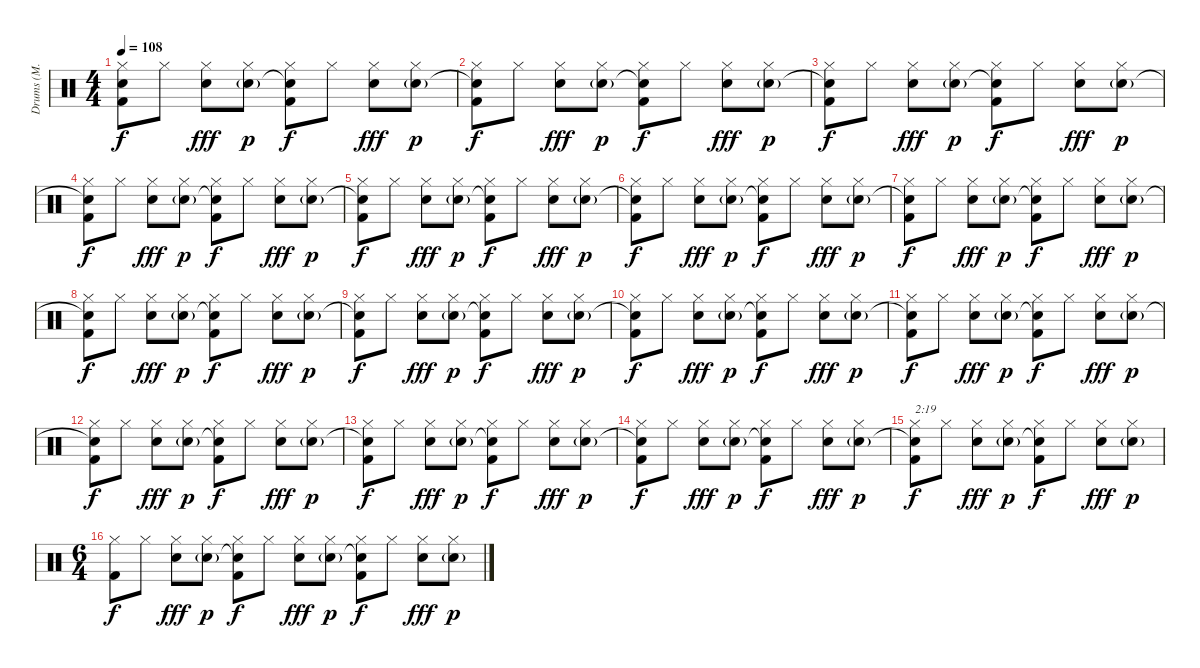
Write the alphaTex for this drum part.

\track ("Drums (M. Chambers)" "Drums (M. ") {instrument percussion}
\staff {score}
\articulation defaults
\ts (4 4)
\tempo 108
\clef neutral
\ks c
("Hi-Hat (closed)" "Snare (hit)"{t} "Kick (hit) 2").8{dy f} "Hi-Hat (closed)".8 ("Hi-Hat (closed)" "Electric Snare (hit)").8{dy fff} ("Hi-Hat (closed)" "Electric Snare (hit)"{g}).8{dy p} ("Hi-Hat (closed)" "Snare (hit)"{t} "Kick (hit) 2").8{dy f} "Hi-Hat (closed)".8 ("Hi-Hat (closed)" "Electric Snare (hit)").8{dy fff} ("Hi-Hat (closed)" "Electric Snare (hit)"{g}).8{dy p} |
("Hi-Hat (closed)" "Snare (hit)"{t} "Kick (hit) 2").8{dy f} "Hi-Hat (closed)".8 ("Hi-Hat (closed)" "Electric Snare (hit)").8{dy fff} ("Hi-Hat (closed)" "Electric Snare (hit)"{g}).8{dy p} ("Hi-Hat (closed)" "Snare (hit)"{t} "Kick (hit) 2").8{dy f} "Hi-Hat (closed)".8 ("Hi-Hat (closed)" "Electric Snare (hit)").8{dy fff} ("Hi-Hat (closed)" "Electric Snare (hit)"{g}).8{dy p} |
("Hi-Hat (closed)" "Snare (hit)"{t} "Kick (hit) 2").8{dy f} "Hi-Hat (closed)".8 ("Hi-Hat (closed)" "Electric Snare (hit)").8{dy fff} ("Hi-Hat (closed)" "Electric Snare (hit)"{g}).8{dy p} ("Hi-Hat (closed)" "Snare (hit)"{t} "Kick (hit) 2").8{dy f} "Hi-Hat (closed)".8 ("Hi-Hat (closed)" "Electric Snare (hit)").8{dy fff} ("Hi-Hat (closed)" "Electric Snare (hit)"{g}).8{dy p} |
("Hi-Hat (closed)" "Snare (hit)"{t} "Kick (hit) 2").8{dy f} "Hi-Hat (closed)".8 ("Hi-Hat (closed)" "Electric Snare (hit)").8{dy fff} ("Hi-Hat (closed)" "Electric Snare (hit)"{g}).8{dy p} ("Hi-Hat (closed)" "Snare (hit)"{t} "Kick (hit) 2").8{dy f} "Hi-Hat (closed)".8 ("Hi-Hat (closed)" "Electric Snare (hit)").8{dy fff} ("Hi-Hat (closed)" "Electric Snare (hit)"{g}).8{dy p} |
("Hi-Hat (closed)" "Snare (hit)"{t} "Kick (hit) 2").8{dy f} "Hi-Hat (closed)".8 ("Hi-Hat (closed)" "Electric Snare (hit)").8{dy fff} ("Hi-Hat (closed)" "Electric Snare (hit)"{g}).8{dy p} ("Hi-Hat (closed)" "Snare (hit)"{t} "Kick (hit) 2").8{dy f} "Hi-Hat (closed)".8 ("Hi-Hat (closed)" "Electric Snare (hit)").8{dy fff} ("Hi-Hat (closed)" "Electric Snare (hit)"{g}).8{dy p} |
("Hi-Hat (closed)" "Snare (hit)"{t} "Kick (hit) 2").8{dy f} "Hi-Hat (closed)".8 ("Hi-Hat (closed)" "Electric Snare (hit)").8{dy fff} ("Hi-Hat (closed)" "Electric Snare (hit)"{g}).8{dy p} ("Hi-Hat (closed)" "Snare (hit)"{t} "Kick (hit) 2").8{dy f} "Hi-Hat (closed)".8 ("Hi-Hat (closed)" "Electric Snare (hit)").8{dy fff} ("Hi-Hat (closed)" "Electric Snare (hit)"{g}).8{dy p} |
("Hi-Hat (closed)" "Snare (hit)"{t} "Kick (hit) 2").8{dy f} "Hi-Hat (closed)".8 ("Hi-Hat (closed)" "Electric Snare (hit)").8{dy fff} ("Hi-Hat (closed)" "Electric Snare (hit)"{g}).8{dy p} ("Hi-Hat (closed)" "Snare (hit)"{t} "Kick (hit) 2").8{dy f} "Hi-Hat (closed)".8 ("Hi-Hat (closed)" "Electric Snare (hit)").8{dy fff} ("Hi-Hat (closed)" "Electric Snare (hit)"{g}).8{dy p} |
("Hi-Hat (closed)" "Snare (hit)"{t} "Kick (hit) 2").8{dy f} "Hi-Hat (closed)".8 ("Hi-Hat (closed)" "Electric Snare (hit)").8{dy fff} ("Hi-Hat (closed)" "Electric Snare (hit)"{g}).8{dy p} ("Hi-Hat (closed)" "Snare (hit)"{t} "Kick (hit) 2").8{dy f} "Hi-Hat (closed)".8 ("Hi-Hat (closed)" "Electric Snare (hit)").8{dy fff} ("Hi-Hat (closed)" "Electric Snare (hit)"{g}).8{dy p} |
("Hi-Hat (closed)" "Snare (hit)"{t} "Kick (hit) 2").8{dy f} "Hi-Hat (closed)".8 ("Hi-Hat (closed)" "Electric Snare (hit)").8{dy fff} ("Hi-Hat (closed)" "Electric Snare (hit)"{g}).8{dy p} ("Hi-Hat (closed)" "Snare (hit)"{t} "Kick (hit) 2").8{dy f} "Hi-Hat (closed)".8 ("Hi-Hat (closed)" "Electric Snare (hit)").8{dy fff} ("Hi-Hat (closed)" "Electric Snare (hit)"{g}).8{dy p} |
("Hi-Hat (closed)" "Snare (hit)"{t} "Kick (hit) 2").8{dy f} "Hi-Hat (closed)".8 ("Hi-Hat (closed)" "Electric Snare (hit)").8{dy fff} ("Hi-Hat (closed)" "Electric Snare (hit)"{g}).8{dy p} ("Hi-Hat (closed)" "Snare (hit)"{t} "Kick (hit) 2").8{dy f} "Hi-Hat (closed)".8 ("Hi-Hat (closed)" "Electric Snare (hit)").8{dy fff} ("Hi-Hat (closed)" "Electric Snare (hit)"{g}).8{dy p} |
("Hi-Hat (closed)" "Snare (hit)"{t} "Kick (hit) 2").8{dy f} "Hi-Hat (closed)".8 ("Hi-Hat (closed)" "Electric Snare (hit)").8{dy fff} ("Hi-Hat (closed)" "Electric Snare (hit)"{g}).8{dy p} ("Hi-Hat (closed)" "Snare (hit)"{t} "Kick (hit) 2").8{dy f} "Hi-Hat (closed)".8 ("Hi-Hat (closed)" "Electric Snare (hit)").8{dy fff} ("Hi-Hat (closed)" "Electric Snare (hit)"{g}).8{dy p} |
("Hi-Hat (closed)" "Snare (hit)"{t} "Kick (hit) 2").8{dy f} "Hi-Hat (closed)".8 ("Hi-Hat (closed)" "Electric Snare (hit)").8{dy fff} ("Hi-Hat (closed)" "Electric Snare (hit)"{g}).8{dy p} ("Hi-Hat (closed)" "Snare (hit)"{t} "Kick (hit) 2").8{dy f} "Hi-Hat (closed)".8 ("Hi-Hat (closed)" "Electric Snare (hit)").8{dy fff} ("Hi-Hat (closed)" "Electric Snare (hit)"{g}).8{dy p} |
("Hi-Hat (closed)" "Snare (hit)"{t} "Kick (hit) 2").8{dy f} "Hi-Hat (closed)".8 ("Hi-Hat (closed)" "Electric Snare (hit)").8{dy fff} ("Hi-Hat (closed)" "Electric Snare (hit)"{g}).8{dy p} ("Hi-Hat (closed)" "Snare (hit)"{t} "Kick (hit) 2").8{dy f} "Hi-Hat (closed)".8 ("Hi-Hat (closed)" "Electric Snare (hit)").8{dy fff} ("Hi-Hat (closed)" "Electric Snare (hit)"{g}).8{dy p} |
("Hi-Hat (closed)" "Snare (hit)"{t} "Kick (hit) 2").8{dy f} "Hi-Hat (closed)".8 ("Hi-Hat (closed)" "Electric Snare (hit)").8{dy fff} ("Hi-Hat (closed)" "Electric Snare (hit)"{g}).8{dy p} ("Hi-Hat (closed)" "Snare (hit)"{t} "Kick (hit) 2").8{dy f} "Hi-Hat (closed)".8 ("Hi-Hat (closed)" "Electric Snare (hit)").8{dy fff} ("Hi-Hat (closed)" "Electric Snare (hit)"{g}).8{dy p} |
("Hi-Hat (closed)" "Snare (hit)"{t} "Kick (hit) 2").8{txt "2:19" dy f} "Hi-Hat (closed)".8 ("Hi-Hat (closed)" "Electric Snare (hit)").8{dy fff} ("Hi-Hat (closed)" "Electric Snare (hit)"{g}).8{dy p} ("Hi-Hat (closed)" "Snare (hit)"{t} "Kick (hit) 2").8{dy f} "Hi-Hat (closed)".8 ("Hi-Hat (closed)" "Electric Snare (hit)").8{dy fff} ("Hi-Hat (closed)" "Electric Snare (hit)"{g}).8{dy p} |
\ts (6 4)
("Hi-Hat (closed)" "Kick (hit) 2").8{dy f} "Hi-Hat (closed)".8 ("Hi-Hat (closed)" "Electric Snare (hit)").8{dy fff} ("Hi-Hat (closed)" "Electric Snare (hit)"{g}).8{dy p} ("Hi-Hat (closed)" "Snare (hit)"{t} "Kick (hit) 2").8{dy f} "Hi-Hat (closed)".8 ("Hi-Hat (closed)" "Electric Snare (hit)").8{dy fff} ("Hi-Hat (closed)" "Electric Snare (hit)"{g}).8{dy p} ("Hi-Hat (closed)" "Snare (hit)"{t} "Kick (hit) 2").8{dy f} "Hi-Hat (closed)".8 ("Hi-Hat (closed)" "Electric Snare (hit)").8{dy fff} ("Hi-Hat (closed)" "Electric Snare (hit)"{g}).8{dy p}
